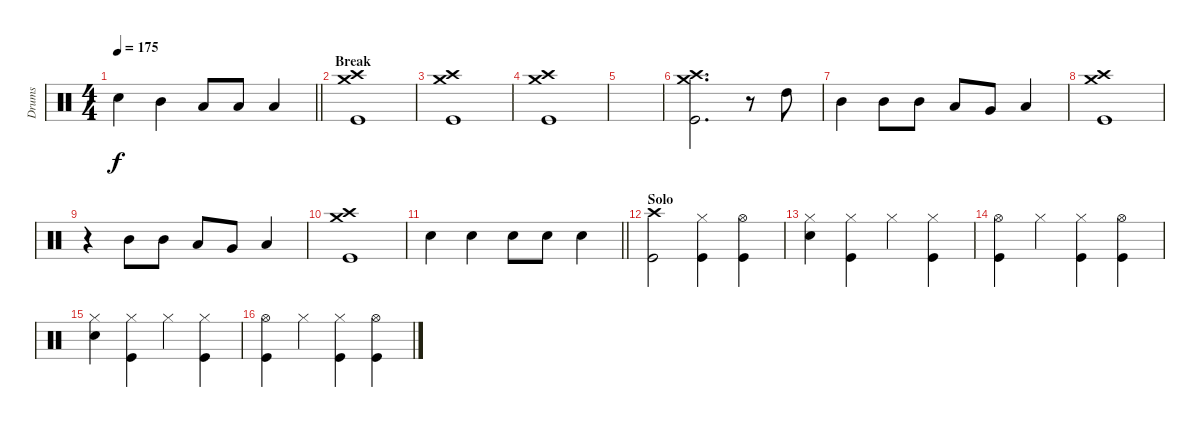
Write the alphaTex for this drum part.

\track ("Drums" "Drums") {instrument percussion}
\staff {score}
\articulation defaults
\ts (4 4)
\tempo 175
\clef neutral
\barLineRight lightlight
\ks c "Electric Snare (hit)".4{dy f} "Mid Tom (hit)".4 "Low Tom (hit)".8 "Low Tom (hit)".8 "Low Floor Tom (hit)".4
|
\section ("" "Break")
("Crash medium (hit)" "Crash high (hit)" "Kick (hit)").1 |
("Crash medium (hit)" "Crash high (hit)" "Kick (hit)").1 |
("Crash medium (hit)" "Crash high (hit)" "Kick (hit)").1 |
|
("Crash medium (hit)" "Crash high (hit)" "Kick (hit)").2{d} r.8 "High Tom (hit)".8 |
"Mid Tom (hit)".4 "Mid Tom (hit)".8 "Mid Tom (hit)".8 "Low Tom (hit)".8 "Very Low Tom (hit)".8 "Low Floor Tom (hit)".4 |
("Crash medium (hit)" "Crash high (hit)" "Kick (hit)").1 |
r.4 "Mid Tom (hit)".8 "Mid Tom (hit)".8 "Low Tom (hit)".8 "Very Low Tom (hit)".8 "Low Floor Tom (hit)".4 |
("Crash medium (hit)" "Crash high (hit)" "Kick (hit)").1 |
\barLineRight lightlight "Electric Snare (hit)".4 "Electric Snare (hit)".4 "Electric Snare (hit)".8 "Electric Snare (hit)".8 "Electric Snare (hit)".4
|
\section ("" "Solo")
("Crash high (hit)" "Kick (hit)").2 ("Hi-Hat (closed)" "Kick (hit)").4 ("Hi-Hat (open)" "Kick (hit)").4 |
("Hi-Hat (closed)" "Electric Snare (hit)").4 ("Hi-Hat (closed)" "Kick (hit)").4 "Hi-Hat (closed)".4 ("Hi-Hat (closed)" "Kick (hit)").4 |
("Hi-Hat (open)" "Kick (hit)").4 "Hi-Hat (closed)".4 ("Hi-Hat (closed)" "Kick (hit)").4 ("Hi-Hat (open)" "Kick (hit)").4 |
("Hi-Hat (closed)" "Electric Snare (hit)").4 ("Hi-Hat (closed)" "Kick (hit)").4 "Hi-Hat (closed)".4 ("Hi-Hat (closed)" "Kick (hit)").4 |
("Hi-Hat (open)" "Kick (hit)").4 "Hi-Hat (closed)".4 ("Hi-Hat (closed)" "Kick (hit)").4 ("Hi-Hat (open)" "Kick (hit)").4
